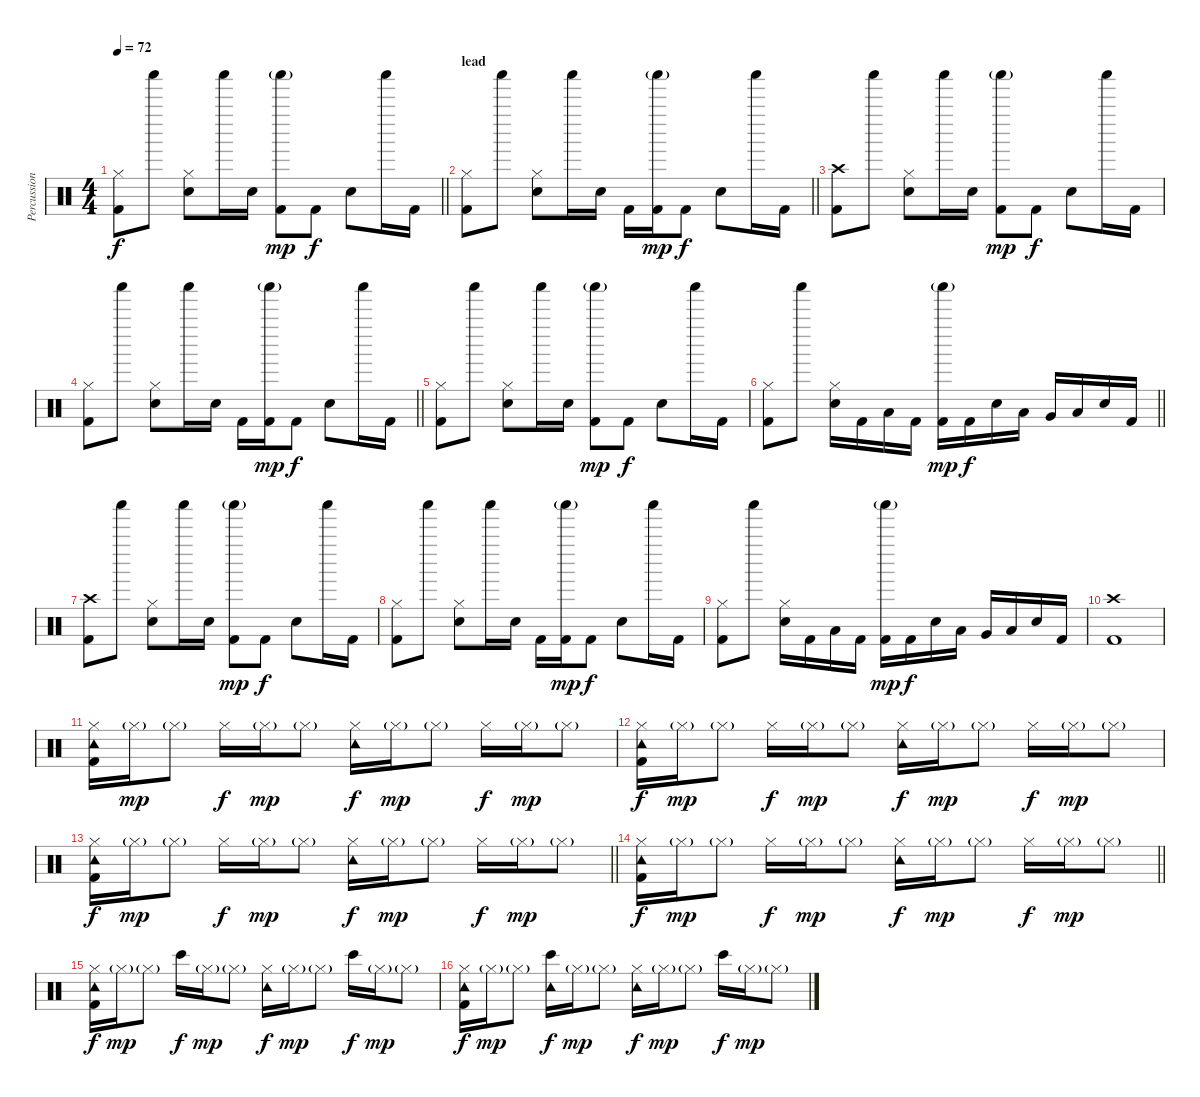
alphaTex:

\track ("Percussion" "Percussion") {instrument percussion bank 126}
\staff {score}
\articulation defaults
\ts (4 4)
\tempo 72
\clef neutral
\barLineRight lightlight
\ks c
("Kick (hit) 2" "Hi-Hat (closed)").8{dy f} "Shaker (hit)".8 ("Hi-Hat (closed)" "Electric Snare (hit)").8 "Shaker (hit)".16 "Electric Snare (hit)".16 ("Kick (hit) 2" "Shaker (hit)"{g}).8{dy mp} "Kick (hit) 2".8{dy f} "Electric Snare (hit)".8 "Shaker (hit)".16 "Kick (hit) 2".16 |
\section ("" "lead")
\barLineRight lightlight
("Hi-Hat (closed)" "Kick (hit) 2").8 "Shaker (hit)".8 ("Hi-Hat (closed)" "Electric Snare (hit)").8 "Shaker (hit)".16 "Electric Snare (hit)".16 "Kick (hit) 2".16 ("Kick (hit) 2" "Shaker (hit)"{g}).16{dy mp} "Kick (hit) 2".8{dy f} "Electric Snare (hit)".8 "Shaker (hit)".16 "Kick (hit) 2".16 |
("Kick (hit) 2" "Crash high (hit)").8 "Shaker (hit)".8 ("Hi-Hat (closed)" "Electric Snare (hit)").8 "Shaker (hit)".16 "Electric Snare (hit)".16 ("Kick (hit) 2" "Shaker (hit)"{g}).8{dy mp} "Kick (hit) 2".8{dy f} "Electric Snare (hit)".8 "Shaker (hit)".16 "Kick (hit) 2".16 |
\barLineRight lightlight
("Hi-Hat (closed)" "Kick (hit) 2").8 "Shaker (hit)".8 ("Hi-Hat (closed)" "Electric Snare (hit)").8 "Shaker (hit)".16 "Electric Snare (hit)".16 "Kick (hit) 2".16 ("Kick (hit) 2" "Shaker (hit)"{g}).16{dy mp} "Kick (hit) 2".8{dy f} "Electric Snare (hit)".8 "Shaker (hit)".16 "Kick (hit) 2".16 |
("Kick (hit) 2" "Hi-Hat (closed)").8 "Shaker (hit)".8 ("Hi-Hat (closed)" "Electric Snare (hit)").8 "Shaker (hit)".16 "Electric Snare (hit)".16 ("Kick (hit) 2" "Shaker (hit)"{g}).8{dy mp} "Kick (hit) 2".8{dy f} "Electric Snare (hit)".8 "Shaker (hit)".16 "Kick (hit) 2".16 |
\barLineRight lightlight
("Hi-Hat (closed)" "Kick (hit) 2").8 "Shaker (hit)".8 ("Hi-Hat (closed)" "Electric Snare (hit)").16 "Kick (hit) 2".16 "Low Tom (hit)".16 "Kick (hit) 2".16 ("Kick (hit) 2" "Shaker (hit)"{g}).16{dy mp} "Kick (hit) 2".16{dy f} "Electric Snare (hit)".16 "Low Tom (hit)".16 "Very Low Tom (hit)".16 "Low Floor Tom (hit)".16 "Electric Snare (hit)".16 "Kick (hit) 2".16 |
("Kick (hit) 2" "Crash high (hit)").8 "Shaker (hit)".8 ("Hi-Hat (closed)" "Electric Snare (hit)").8 "Shaker (hit)".16 "Electric Snare (hit)".16 ("Kick (hit) 2" "Shaker (hit)"{g}).8{dy mp} "Kick (hit) 2".8{dy f} "Electric Snare (hit)".8 "Shaker (hit)".16 "Kick (hit) 2".16 |
("Hi-Hat (closed)" "Kick (hit) 2").8 "Shaker (hit)".8 ("Hi-Hat (closed)" "Electric Snare (hit)").8 "Shaker (hit)".16 "Electric Snare (hit)".16 "Kick (hit) 2".16 ("Kick (hit) 2" "Shaker (hit)"{g}).16{dy mp} "Kick (hit) 2".8{dy f} "Electric Snare (hit)".8 "Shaker (hit)".16 "Kick (hit) 2".16 |
("Hi-Hat (closed)" "Kick (hit) 2").8 "Shaker (hit)".8 ("Hi-Hat (closed)" "Electric Snare (hit)").16 "Kick (hit) 2".16 "Low Tom (hit)".16 "Kick (hit) 2".16 ("Kick (hit) 2" "Shaker (hit)"{g}).16{dy mp} "Kick (hit) 2".16{dy f} "Electric Snare (hit)".16 "Low Tom (hit)".16 "Very Low Tom (hit)".16 "Low Floor Tom (hit)".16 "Electric Snare (hit)".16 "Kick (hit) 2".16 |
("Kick (hit) 2" "Crash high (hit)").1 |
("Tambourine (hit)" "Kick (hit) 2" "Hi-Hat (closed)").16 "Hi-Hat (closed)"{g}.16{dy mp} "Hi-Hat (closed)"{g}.8 "Hi-Hat (closed)".16{dy f} "Hi-Hat (closed)"{g}.16{dy mp} "Hi-Hat (closed)"{g}.8 ("Tambourine (hit)" "Hi-Hat (closed)").16{dy f} "Hi-Hat (closed)"{g}.16{dy mp} "Hi-Hat (closed)"{g}.8 "Hi-Hat (closed)".16{dy f} "Hi-Hat (closed)"{g}.16{dy mp} "Hi-Hat (closed)"{g}.8 |
("Tambourine (hit)" "Kick (hit) 2" "Hi-Hat (closed)").16{dy f} "Hi-Hat (closed)"{g}.16{dy mp} "Hi-Hat (closed)"{g}.8 "Hi-Hat (closed)".16{dy f} "Hi-Hat (closed)"{g}.16{dy mp} "Hi-Hat (closed)"{g}.8 ("Tambourine (hit)" "Hi-Hat (closed)").16{dy f} "Hi-Hat (closed)"{g}.16{dy mp} "Hi-Hat (closed)"{g}.8 "Hi-Hat (closed)".16{dy f} "Hi-Hat (closed)"{g}.16{dy mp} "Hi-Hat (closed)"{g}.8 |
\barLineRight lightlight
("Tambourine (hit)" "Kick (hit) 2" "Hi-Hat (closed)").16{dy f} "Hi-Hat (closed)"{g}.16{dy mp} "Hi-Hat (closed)"{g}.8 "Hi-Hat (closed)".16{dy f} "Hi-Hat (closed)"{g}.16{dy mp} "Hi-Hat (closed)"{g}.8 ("Tambourine (hit)" "Hi-Hat (closed)").16{dy f} "Hi-Hat (closed)"{g}.16{dy mp} "Hi-Hat (closed)"{g}.8 "Hi-Hat (closed)".16{dy f} "Hi-Hat (closed)"{g}.16{dy mp} "Hi-Hat (closed)"{g}.8 |
\barLineRight lightlight
("Tambourine (hit)" "Kick (hit) 2" "Hi-Hat (closed)").16{dy f} "Hi-Hat (closed)"{g}.16{dy mp} "Hi-Hat (closed)"{g}.8 "Hi-Hat (closed)".16{dy f} "Hi-Hat (closed)"{g}.16{dy mp} "Hi-Hat (closed)"{g}.8 ("Tambourine (hit)" "Hi-Hat (closed)").16{dy f} "Hi-Hat (closed)"{g}.16{dy mp} "Hi-Hat (closed)"{g}.8 "Hi-Hat (closed)".16{dy f} "Hi-Hat (closed)"{g}.16{dy mp} "Hi-Hat (closed)"{g}.8 |
("Tambourine (hit)" "Kick (hit) 2" "Hi-Hat (closed)").16{dy f} "Hi-Hat (closed)"{g}.16{dy mp} "Hi-Hat (closed)"{g}.8 "Bongo High (hit)".16{dy f} "Hi-Hat (closed)"{g}.16{dy mp} "Hi-Hat (closed)"{g}.8 ("Tambourine (hit)" "Hi-Hat (closed)").16{dy f} "Hi-Hat (closed)"{g}.16{dy mp} "Hi-Hat (closed)"{g}.8 "Bongo High (hit)".16{dy f} "Hi-Hat (closed)"{g}.16{dy mp} "Hi-Hat (closed)"{g}.8 |
("Tambourine (hit)" "Kick (hit) 2" "Hi-Hat (closed)").16{dy f} "Hi-Hat (closed)"{g}.16{dy mp} "Hi-Hat (closed)"{g}.8 ("Bongo High (hit)" "Tambourine (hit)").16{dy f} "Hi-Hat (closed)"{g}.16{dy mp} "Hi-Hat (closed)"{g}.8 ("Tambourine (hit)" "Hi-Hat (closed)").16{dy f} "Hi-Hat (closed)"{g}.16{dy mp} "Hi-Hat (closed)"{g}.8 "Bongo High (hit)".16{dy f} "Hi-Hat (closed)"{g}.16{dy mp} "Hi-Hat (closed)"{g}.8
